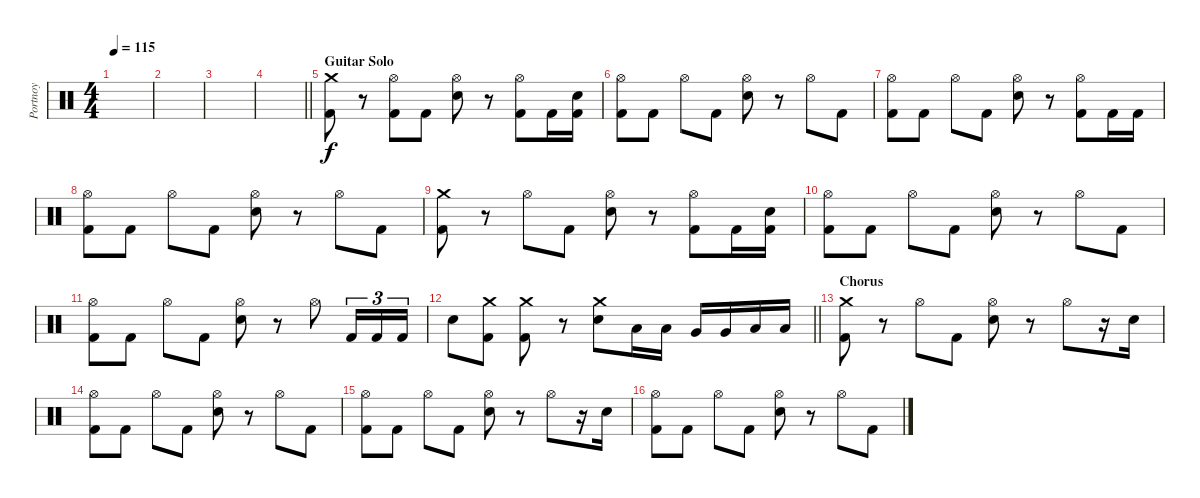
\track ("Portnoy" "Portnoy") {instrument percussion}
\staff {score}
\articulation defaults
\ts (4 4)
\tempo 115
\clef neutral
\ks c
|
|
|
\barLineRight lightlight
|
\section ("" "Guitar Solo")
("Crash medium (hit)" "Kick (hit) 2").8 r.8 ("Hi-Hat (open)" "Kick (hit) 2").8 "Kick (hit) 2".8 ("Hi-Hat (open)" "Snare (hit) 2").8 r.8 ("Hi-Hat (open)" "Kick (hit) 2").8 "Kick (hit) 2".16 ("Snare (hit) 2" "Kick (hit) 2").16 |
("Hi-Hat (open)" "Kick (hit) 2").8 "Kick (hit) 2".8 "Hi-Hat (open)".8 "Kick (hit) 2".8 ("Hi-Hat (open)" "Snare (hit) 2").8 r.8 "Hi-Hat (open)".8 "Kick (hit) 2".8 |
("Hi-Hat (open)" "Kick (hit) 2").8 "Kick (hit) 2".8 "Hi-Hat (open)".8 "Kick (hit) 2".8 ("Hi-Hat (open)" "Snare (hit) 2").8 r.8 ("Hi-Hat (open)" "Kick (hit) 2").8 "Kick (hit) 2".16 "Kick (hit) 2".16 |
("Hi-Hat (open)" "Kick (hit) 2").8 "Kick (hit) 2".8 "Hi-Hat (open)".8 "Kick (hit) 2".8 ("Hi-Hat (open)" "Snare (hit) 2").8 r.8 "Hi-Hat (open)".8 "Kick (hit) 2".8 |
("Crash medium (hit)" "Kick (hit) 2").8 r.8 "Hi-Hat (open)".8 "Kick (hit) 2".8 ("Hi-Hat (open)" "Snare (hit) 2").8 r.8 ("Hi-Hat (open)" "Kick (hit) 2").8 "Kick (hit) 2".16 ("Snare (hit) 2" "Kick (hit) 2").16 |
("Hi-Hat (open)" "Kick (hit) 2").8 "Kick (hit) 2".8 "Hi-Hat (open)".8 "Kick (hit) 2".8 ("Hi-Hat (open)" "Snare (hit) 2").8 r.8 "Hi-Hat (open)".8 "Kick (hit) 2".8 |
("Hi-Hat (open)" "Kick (hit) 2").8 "Kick (hit) 2".8 "Hi-Hat (open)".8 "Kick (hit) 2".8 ("Hi-Hat (open)" "Snare (hit) 2").8 r.8 "Hi-Hat (open)".8 "Kick (hit) 2".16{tu (3 2)} "Kick (hit) 2".16{tu (3 2)} "Kick (hit) 2".16{tu (3 2)} |
\barLineRight lightlight "Snare (hit) 2".8
("Crash medium (hit)" "Kick (hit) 2").8 ("Crash medium (hit)" "Kick (hit) 2").8 r.8 ("Crash medium (hit)" "Snare (hit) 2").8 "Low Tom (hit)".16 "Low Tom (hit)".16 "Very Low Tom (hit)".16 "Very Low Tom (hit)".16 "Low Floor Tom (hit)".16 "Low Floor Tom (hit)".16 |
\section ("" "Chorus")
("Crash medium (hit)" "Kick (hit) 2").8 r.8 "Hi-Hat (open)".8 "Kick (hit) 2".8 ("Hi-Hat (open)" "Snare (hit) 2").8 r.8 "Hi-Hat (open)".8 r.16 "Snare (hit) 2".16 |
("Hi-Hat (open)" "Kick (hit) 2").8 "Kick (hit) 2".8 "Hi-Hat (open)".8 "Kick (hit) 2".8 ("Hi-Hat (open)" "Snare (hit) 2").8 r.8 "Hi-Hat (open)".8 "Kick (hit) 2".8 |
("Hi-Hat (open)" "Kick (hit) 2").8 "Kick (hit) 2".8 "Hi-Hat (open)".8 "Kick (hit) 2".8 ("Hi-Hat (open)" "Snare (hit) 2").8 r.8 "Hi-Hat (open)".8 r.16 "Snare (hit) 2".16 |
("Hi-Hat (open)" "Kick (hit) 2").8 "Kick (hit) 2".8 "Hi-Hat (open)".8 "Kick (hit) 2".8 ("Hi-Hat (open)" "Snare (hit) 2").8 r.8 "Hi-Hat (open)".8 "Kick (hit) 2".8
